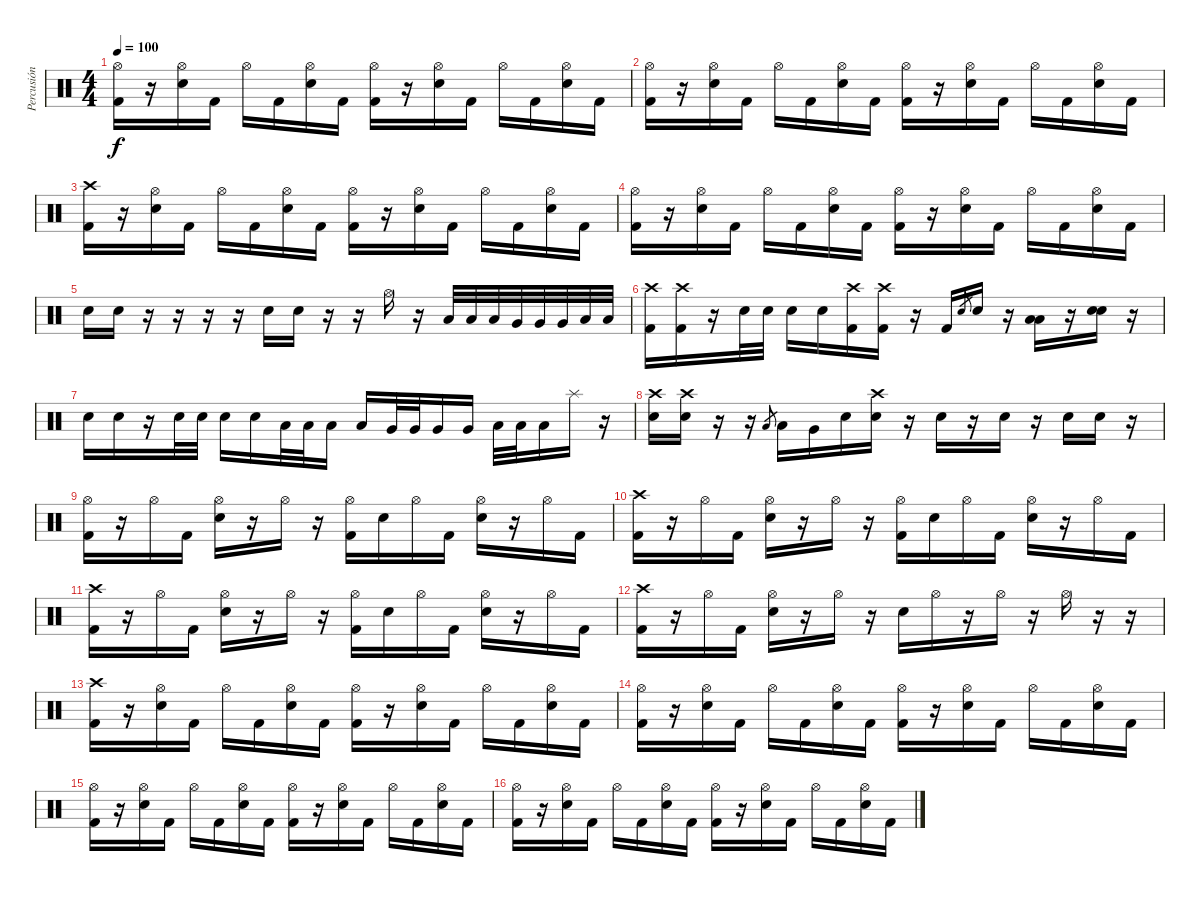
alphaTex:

\track ("Percusión" "Percusión") {instrument percussion}
\staff {score}
\articulation defaults
\ts (4 4)
\tempo 100
\clef neutral
\ks c
("Hi-Hat (open)" "Kick (hit) 2").16{dy f} r.16 ("Hi-Hat (open)" "Electric Snare (hit)").16 "Kick (hit) 2".16 "Hi-Hat (open)".16 "Kick (hit) 2".16 ("Hi-Hat (open)" "Electric Snare (hit)").16 "Kick (hit) 2".16 ("Hi-Hat (open)" "Kick (hit) 2").16 r.16 ("Hi-Hat (open)" "Electric Snare (hit)").16 "Kick (hit) 2".16 "Hi-Hat (open)".16 "Kick (hit) 2".16 ("Hi-Hat (open)" "Electric Snare (hit)").16 "Kick (hit) 2".16 |
("Hi-Hat (open)" "Kick (hit) 2").16 r.16 ("Hi-Hat (open)" "Electric Snare (hit)").16 "Kick (hit) 2".16 "Hi-Hat (open)".16 "Kick (hit) 2".16 ("Hi-Hat (open)" "Electric Snare (hit)").16 "Kick (hit) 2".16 ("Hi-Hat (open)" "Kick (hit) 2").16 r.16 ("Hi-Hat (open)" "Electric Snare (hit)").16 "Kick (hit) 2".16 "Hi-Hat (open)".16 "Kick (hit) 2".16 ("Hi-Hat (open)" "Electric Snare (hit)").16 "Kick (hit) 2".16 |
("Crash high (hit)" "Kick (hit) 2").16 r.16 ("Hi-Hat (open)" "Electric Snare (hit)").16 "Kick (hit) 2".16 "Hi-Hat (open)".16 "Kick (hit) 2".16 ("Hi-Hat (open)" "Electric Snare (hit)").16 "Kick (hit) 2".16 ("Hi-Hat (open)" "Kick (hit) 2").16 r.16 ("Hi-Hat (open)" "Electric Snare (hit)").16 "Kick (hit) 2".16 "Hi-Hat (open)".16 "Kick (hit) 2".16 ("Hi-Hat (open)" "Electric Snare (hit)").16 "Kick (hit) 2".16 |
("Hi-Hat (open)" "Kick (hit) 2").16 r.16 ("Hi-Hat (open)" "Electric Snare (hit)").16 "Kick (hit) 2".16 "Hi-Hat (open)".16 "Kick (hit) 2".16 ("Hi-Hat (open)" "Electric Snare (hit)").16 "Kick (hit) 2".16 ("Hi-Hat (open)" "Kick (hit) 2").16 r.16 ("Hi-Hat (open)" "Electric Snare (hit)").16 "Kick (hit) 2".16 "Hi-Hat (open)".16 "Kick (hit) 2".16 ("Hi-Hat (open)" "Electric Snare (hit)").16 "Kick (hit) 2".16 |
"Electric Snare (hit)".16 "Electric Snare (hit)".16 r.16 r.16 r.16 r.16 "Electric Snare (hit)".16 "Electric Snare (hit)".16 r.16 r.16 "Hi-Hat (open)".16 r.16 "Low Tom (hit)".32 "Low Tom (hit)".32 "Low Tom (hit)".32 "Very Low Tom (hit)".32 "Very Low Tom (hit)".32 "Very Low Tom (hit)".32 "Low Floor Tom (hit)".32 "Low Floor Tom (hit)".32 |
("Kick (hit) 2" "Crash high (hit)").16 ("Kick (hit) 2" "Crash high (hit)").16 r.16 "Electric Snare (hit)".32 "Electric Snare (hit)".32 "Electric Snare (hit)".16 "Electric Snare (hit)".16 ("Kick (hit) 2" "Crash high (hit)").16 ("Kick (hit) 2" "Crash high (hit)").16 r.16 "Kick (hit) 2".16 "Electric Snare (hit)".8{gr} "Electric Snare (hit)".16 r.16 ("Low Tom (hit)" "Low Tom (hit)").16 r.16 ("Electric Snare (hit)" "Electric Snare (hit)").16 r.16 |
"Electric Snare (hit)".16 "Electric Snare (hit)".16 r.16 "Electric Snare (hit)".32 "Electric Snare (hit)".32 "Electric Snare (hit)".16 "Electric Snare (hit)".16 "Low Tom (hit)".32 "Low Tom (hit)".32 "Low Tom (hit)".16 "Low Tom (hit)".16 "Very Low Tom (hit)".32 "Very Low Tom (hit)".32 "Very Low Tom (hit)".16 "Very Low Tom (hit)".16 "Low Floor Tom (hit)".32 "Low Floor Tom (hit)".32 "Low Floor Tom (hit)".16 "Splash (hit)".16 r.16 |
("Electric Snare (hit)" "Crash high (hit)").16 ("Electric Snare (hit)" "Crash high (hit)").16 r.16 r.16 "Low Tom (hit)".8{gr} "Low Tom (hit)".16 "Very Low Tom (hit)".16 "Electric Snare (hit)".16 ("Electric Snare (hit)" "Crash high (hit)").16 r.16 "Electric Snare (hit)".16 r.16 "Electric Snare (hit)".16 r.16 "Electric Snare (hit)".16 "Electric Snare (hit)".16 r.16 |
("Hi-Hat (open)" "Kick (hit) 2").16 r.16 "Hi-Hat (open)".16 "Kick (hit) 2".16 ("Hi-Hat (open)" "Electric Snare (hit)").16 r.16 "Hi-Hat (open)".16 r.16 ("Hi-Hat (open)" "Kick (hit) 2").16 "Electric Snare (hit)".16 "Hi-Hat (open)".16 "Kick (hit) 2".16 ("Hi-Hat (open)" "Electric Snare (hit)").16 r.16 "Hi-Hat (open)".16 "Kick (hit) 2".16 |
("Crash high (hit)" "Kick (hit) 2").16 r.16 "Hi-Hat (open)".16 "Kick (hit) 2".16 ("Hi-Hat (open)" "Electric Snare (hit)").16 r.16 "Hi-Hat (open)".16 r.16 ("Hi-Hat (open)" "Kick (hit) 2").16 "Electric Snare (hit)".16 "Hi-Hat (open)".16 "Kick (hit) 2".16 ("Hi-Hat (open)" "Electric Snare (hit)").16 r.16 "Hi-Hat (open)".16 "Kick (hit) 2".16 |
("Crash high (hit)" "Kick (hit) 2").16 r.16 "Hi-Hat (open)".16 "Kick (hit) 2".16 ("Hi-Hat (open)" "Electric Snare (hit)").16 r.16 "Hi-Hat (open)".16 r.16 ("Hi-Hat (open)" "Kick (hit) 2").16 "Electric Snare (hit)".16 "Hi-Hat (open)".16 "Kick (hit) 2".16 ("Hi-Hat (open)" "Electric Snare (hit)").16 r.16 "Hi-Hat (open)".16 "Kick (hit) 2".16 |
("Crash high (hit)" "Kick (hit) 2").16 r.16 "Hi-Hat (open)".16 "Kick (hit) 2".16 ("Hi-Hat (open)" "Electric Snare (hit)").16 r.16 "Hi-Hat (open)".16 r.16 "Electric Snare (hit)".16 "Hi-Hat (open)".16 r.16 "Hi-Hat (open)".16 r.16 "Hi-Hat (open)".16 r.16 r.16 |
("Crash high (hit)" "Kick (hit) 2").16 r.16 ("Hi-Hat (open)" "Electric Snare (hit)").16 "Kick (hit) 2".16 "Hi-Hat (open)".16 "Kick (hit) 2".16 ("Hi-Hat (open)" "Electric Snare (hit)").16 "Kick (hit) 2".16 ("Hi-Hat (open)" "Kick (hit) 2").16 r.16 ("Hi-Hat (open)" "Electric Snare (hit)").16 "Kick (hit) 2".16 "Hi-Hat (open)".16 "Kick (hit) 2".16 ("Hi-Hat (open)" "Electric Snare (hit)").16 "Kick (hit) 2".16 |
("Hi-Hat (open)" "Kick (hit) 2").16 r.16 ("Hi-Hat (open)" "Electric Snare (hit)").16 "Kick (hit) 2".16 "Hi-Hat (open)".16 "Kick (hit) 2".16 ("Hi-Hat (open)" "Electric Snare (hit)").16 "Kick (hit) 2".16 ("Hi-Hat (open)" "Kick (hit) 2").16 r.16 ("Hi-Hat (open)" "Electric Snare (hit)").16 "Kick (hit) 2".16 "Hi-Hat (open)".16 "Kick (hit) 2".16 ("Hi-Hat (open)" "Electric Snare (hit)").16 "Kick (hit) 2".16 |
("Hi-Hat (open)" "Kick (hit) 2").16 r.16 ("Hi-Hat (open)" "Electric Snare (hit)").16 "Kick (hit) 2".16 "Hi-Hat (open)".16 "Kick (hit) 2".16 ("Hi-Hat (open)" "Electric Snare (hit)").16 "Kick (hit) 2".16 ("Hi-Hat (open)" "Kick (hit) 2").16 r.16 ("Hi-Hat (open)" "Electric Snare (hit)").16 "Kick (hit) 2".16 "Hi-Hat (open)".16 "Kick (hit) 2".16 ("Hi-Hat (open)" "Electric Snare (hit)").16 "Kick (hit) 2".16 |
("Hi-Hat (open)" "Kick (hit) 2").16 r.16 ("Hi-Hat (open)" "Electric Snare (hit)").16 "Kick (hit) 2".16 "Hi-Hat (open)".16 "Kick (hit) 2".16 ("Hi-Hat (open)" "Electric Snare (hit)").16 "Kick (hit) 2".16 ("Hi-Hat (open)" "Kick (hit) 2").16 r.16 ("Hi-Hat (open)" "Electric Snare (hit)").16 "Kick (hit) 2".16 "Hi-Hat (open)".16 "Kick (hit) 2".16 ("Hi-Hat (open)" "Electric Snare (hit)").16 "Kick (hit) 2".16
